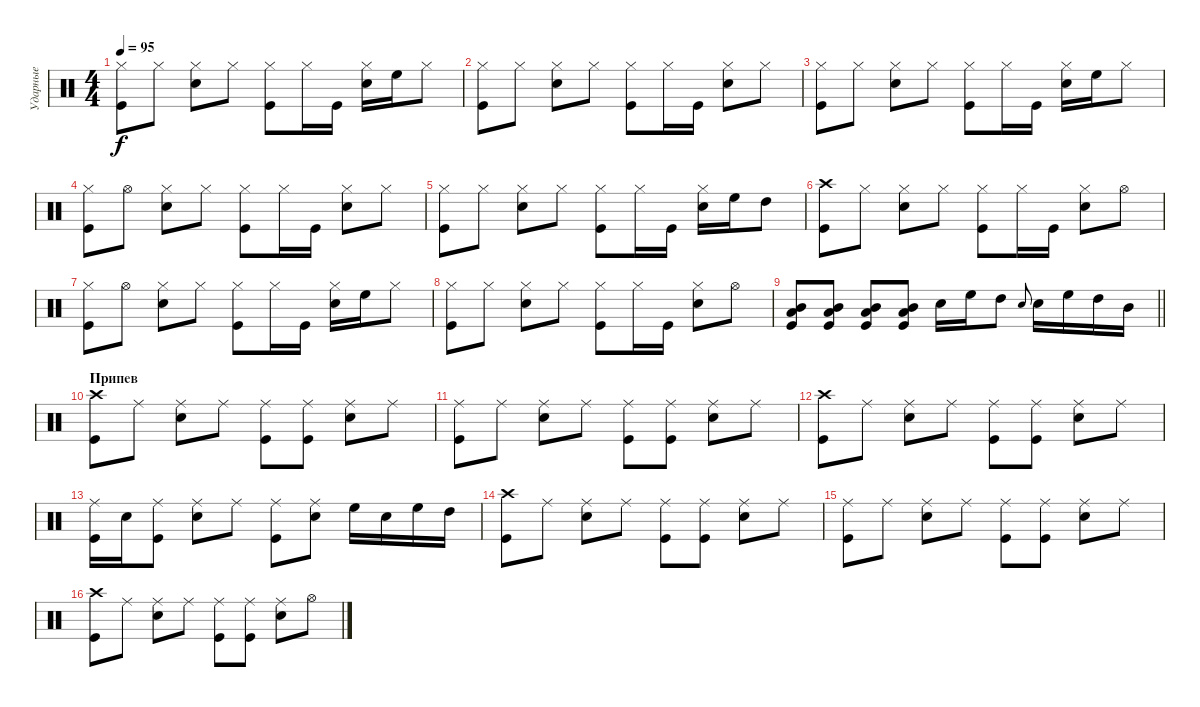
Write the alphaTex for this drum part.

\track ("Ударные" "Ударные") {instrument percussion}
\staff {score}
\articulation defaults
\ts (4 4)
\tempo 95
\clef neutral
\ks c
("Hi-Hat (closed)" "Kick (hit)").8{dy f} "Hi-Hat (closed)".8 ("Hi-Hat (closed)" "Snare (hit) 2").8 "Hi-Hat (closed)".8 ("Hi-Hat (closed)" "Kick (hit)").8 "Hi-Hat (closed)".16 "Kick (hit)".16 ("Hi-Hat (closed)" "Snare (hit) 2").16 "High Floor Tom (hit)".16 "Hi-Hat (closed)".8 |
("Hi-Hat (closed)" "Kick (hit)").8 "Hi-Hat (closed)".8 ("Hi-Hat (closed)" "Snare (hit) 2").8 "Hi-Hat (closed)".8 ("Hi-Hat (closed)" "Kick (hit)").8 "Hi-Hat (closed)".16 "Kick (hit)".16 ("Hi-Hat (closed)" "Snare (hit) 2").8 "Hi-Hat (closed)".8 |
("Hi-Hat (closed)" "Kick (hit)").8 "Hi-Hat (closed)".8 ("Hi-Hat (closed)" "Snare (hit) 2").8 "Hi-Hat (closed)".8 ("Hi-Hat (closed)" "Kick (hit)").8 "Hi-Hat (closed)".16 "Kick (hit)".16 ("Hi-Hat (closed)" "Snare (hit) 2").16 "High Floor Tom (hit)".16 "Hi-Hat (closed)".8 |
("Hi-Hat (closed)" "Kick (hit)").8 "Hi-Hat (open)".8 ("Hi-Hat (closed)" "Snare (hit) 2").8 "Hi-Hat (closed)".8 ("Hi-Hat (closed)" "Kick (hit)").8 "Hi-Hat (closed)".16 "Kick (hit)".16 ("Hi-Hat (closed)" "Snare (hit) 2").8 "Hi-Hat (closed)".8 |
("Hi-Hat (closed)" "Kick (hit)").8 "Hi-Hat (closed)".8 ("Hi-Hat (closed)" "Snare (hit) 2").8 "Hi-Hat (closed)".8 ("Hi-Hat (closed)" "Kick (hit)").8 "Hi-Hat (closed)".16 "Kick (hit)".16 ("Hi-Hat (closed)" "Snare (hit) 2").16 "High Floor Tom (hit)".16 "High Tom (hit)".8 |
("Crash high (hit)" "Kick (hit)").8 "Hi-Hat (closed)".8 ("Hi-Hat (closed)" "Snare (hit) 2").8 "Hi-Hat (closed)".8 ("Hi-Hat (closed)" "Kick (hit)").8 "Hi-Hat (closed)".16 "Kick (hit)".16 ("Hi-Hat (closed)" "Snare (hit) 2").8 "Hi-Hat (open)".8 |
("Hi-Hat (closed)" "Kick (hit)").8 "Hi-Hat (open)".8 ("Hi-Hat (closed)" "Snare (hit) 2").8 "Hi-Hat (closed)".8 ("Hi-Hat (closed)" "Kick (hit)").8 "Hi-Hat (closed)".16 "Kick (hit)".16 ("Hi-Hat (closed)" "Snare (hit) 2").16 "High Floor Tom (hit)".16 "Hi-Hat (closed)".8 |
("Hi-Hat (closed)" "Kick (hit)").8 "Hi-Hat (closed)".8 ("Hi-Hat (closed)" "Snare (hit) 2").8 "Hi-Hat (closed)".8 ("Hi-Hat (closed)" "Kick (hit)").8 "Hi-Hat (closed)".16 "Kick (hit)".16 ("Hi-Hat (closed)" "Snare (hit) 2").8 "Hi-Hat (open)".8 |
\barLineRight lightlight
("Mid Tom (hit)" "Low Tom (hit)" "Kick (hit)").8 ("Mid Tom (hit)" "Low Tom (hit)" "Kick (hit)").8 ("Mid Tom (hit)" "Low Tom (hit)" "Kick (hit)").8 ("Mid Tom (hit)" "Low Tom (hit)" "Kick (hit)").8 "Snare (hit) 2".16 "High Floor Tom (hit)".16 "High Tom (hit)".8 "Snare (hit) 2".8{gr onbeat} "Snare (hit) 2".16 "High Floor Tom (hit)".16 "High Tom (hit)".16 "Mid Tom (hit)".16 |
\section ("" "Припев")
("Crash high (hit)" "Kick (hit)").8{volume 16} "Ride (middle)".8 ("Ride (middle)" "Snare (hit) 2").8 "Ride (middle)".8 ("Ride (middle)" "Kick (hit)").8 ("Ride (middle)" "Kick (hit)").8 ("Ride (middle)" "Snare (hit) 2").8 "Ride (middle)".8 |
("Ride (middle)" "Kick (hit)").8 "Ride (middle)".8 ("Ride (middle)" "Snare (hit) 2").8 "Ride (middle)".8 ("Ride (middle)" "Kick (hit)").8 ("Ride (middle)" "Kick (hit)").8 ("Ride (middle)" "Snare (hit) 2").8 "Ride (middle)".8 |
("Crash high (hit)" "Kick (hit)").8 "Ride (middle)".8 ("Ride (middle)" "Snare (hit) 2").8 "Ride (middle)".8 ("Ride (middle)" "Kick (hit)").8 ("Ride (middle)" "Kick (hit)").8 ("Ride (middle)" "Snare (hit) 2").8 "Ride (middle)".8 |
("Ride (middle)" "Kick (hit)").16 "Snare (hit) 2".16 ("Ride (middle)" "Kick (hit)").8 ("Ride (middle)" "Snare (hit) 2").8 "Ride (middle)".8 ("Ride (middle)" "Kick (hit)").8 ("Ride (middle)" "Snare (hit) 2").8 "High Floor Tom (hit)".16 "Snare (hit) 2".16 "High Floor Tom (hit)".16 "High Tom (hit)".16 |
("Crash high (hit)" "Kick (hit)").8 "Ride (middle)".8 ("Ride (middle)" "Snare (hit) 2").8 "Ride (middle)".8 ("Ride (middle)" "Kick (hit)").8 ("Ride (middle)" "Kick (hit)").8 ("Ride (middle)" "Snare (hit) 2").8 "Ride (middle)".8 |
("Ride (middle)" "Kick (hit)").8 "Ride (middle)".8 ("Ride (middle)" "Snare (hit) 2").8 "Ride (middle)".8 ("Ride (middle)" "Kick (hit)").8 ("Ride (middle)" "Kick (hit)").8 ("Ride (middle)" "Snare (hit) 2").8 "Ride (middle)".8 |
("Crash high (hit)" "Kick (hit)").8 "Ride (middle)".8 ("Ride (middle)" "Snare (hit) 2").8 "Ride (middle)".8 ("Ride (middle)" "Kick (hit)").8 ("Ride (middle)" "Kick (hit)").8 ("Ride (middle)" "Snare (hit) 2").8 "Hi-Hat (open)".8
